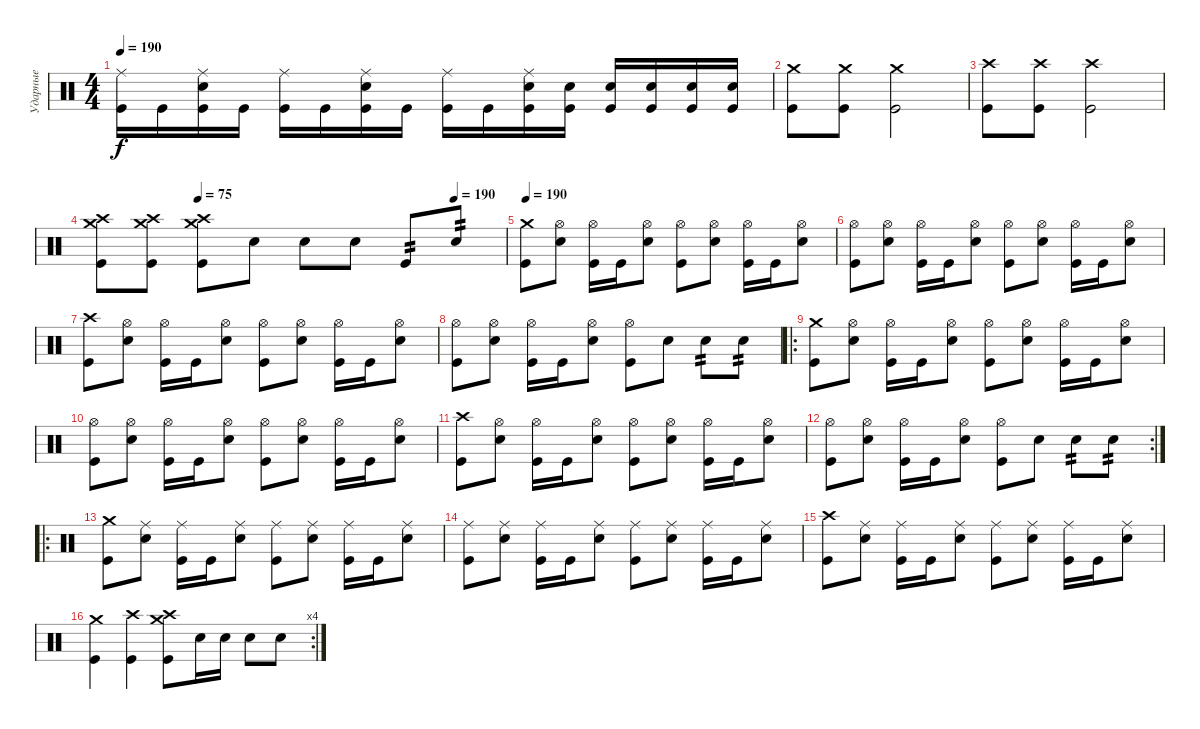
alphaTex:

\track ("Ударные" "Ударные") {instrument percussion}
\staff {score}
\articulation defaults
\ts (4 4)
\tempo 190
\clef neutral
\ks c
("Kick (hit)" "Ride (middle)").16{dy f} "Kick (hit)".16 ("Kick (hit)" "Electric Snare (hit)" "Ride (middle)").16 "Kick (hit)".16 ("Kick (hit)" "Ride (middle)").16 "Kick (hit)".16 ("Kick (hit)" "Electric Snare (hit)" "Ride (middle)").16 "Kick (hit)".16 ("Kick (hit)" "Ride (middle)").16 "Kick (hit)".16 ("Kick (hit)" "Electric Snare (hit)" "Ride (middle)").16 ("Kick (hit)" "Electric Snare (hit)").16 ("Kick (hit)" "Electric Snare (hit)").16 ("Kick (hit)" "Electric Snare (hit)").16 ("Kick (hit)" "Electric Snare (hit)").16 ("Kick (hit)" "Electric Snare (hit)").16 |
("Kick (hit)" "Crash medium (hit)").8 ("Kick (hit)" "Crash medium (hit)").8 ("Kick (hit)" "Crash medium (hit)").2 |
("Kick (hit)" "Crash high (hit)").8 ("Kick (hit)" "Crash high (hit)").8 ("Kick (hit)" "Crash high (hit)").2 |
\tempo (75 0.25)
\tempo (190 0.875)
("Kick (hit)" "Crash medium (hit)" "Crash high (hit)").8 ("Kick (hit)" "Crash medium (hit)" "Crash high (hit)").8 ("Kick (hit)" "Crash medium (hit)" "Crash high (hit)").8 "Snare (hit)".8 "Snare (hit)".8 "Snare (hit)".8 "Kick (hit)".8{tp 2} "Electric Snare (hit)".8{tp 2} |
\tempo 195
\tempo 190
("Kick (hit)" "Crash medium (hit)").8 ("Electric Snare (hit)" "Hi-Hat (open)").8 ("Kick (hit)" "Hi-Hat (open)").16 "Kick (hit)".16 ("Electric Snare (hit)" "Hi-Hat (open)").8 ("Kick (hit)" "Hi-Hat (open)").8 ("Electric Snare (hit)" "Hi-Hat (open)").8 ("Kick (hit)" "Hi-Hat (open)").16 "Kick (hit)".16 ("Electric Snare (hit)" "Hi-Hat (open)").8 |
("Kick (hit)" "Hi-Hat (open)").8 ("Electric Snare (hit)" "Hi-Hat (open)").8 ("Kick (hit)" "Hi-Hat (open)").16 "Kick (hit)".16 ("Electric Snare (hit)" "Hi-Hat (open)").8 ("Kick (hit)" "Hi-Hat (open)").8 ("Electric Snare (hit)" "Hi-Hat (open)").8 ("Kick (hit)" "Hi-Hat (open)").16 "Kick (hit)".16 ("Electric Snare (hit)" "Hi-Hat (open)").8 |
("Kick (hit)" "Crash high (hit)").8 ("Electric Snare (hit)" "Hi-Hat (open)").8 ("Kick (hit)" "Hi-Hat (open)").16 "Kick (hit)".16 ("Electric Snare (hit)" "Hi-Hat (open)").8 ("Kick (hit)" "Hi-Hat (open)").8 ("Electric Snare (hit)" "Hi-Hat (open)").8 ("Kick (hit)" "Hi-Hat (open)").16 "Kick (hit)".16 ("Electric Snare (hit)" "Hi-Hat (open)").8 |
("Kick (hit)" "Hi-Hat (open)").8 ("Electric Snare (hit)" "Hi-Hat (open)").8 ("Kick (hit)" "Hi-Hat (open)").16 "Kick (hit)".16 ("Electric Snare (hit)" "Hi-Hat (open)").8 ("Kick (hit)" "Hi-Hat (open)").8 "Electric Snare (hit)".8 "Electric Snare (hit)".8{tp 2} "Electric Snare (hit)".8{tp 2} |
\ro
("Kick (hit)" "Crash medium (hit)").8 ("Electric Snare (hit)" "Hi-Hat (open)").8 ("Kick (hit)" "Hi-Hat (open)").16 "Kick (hit)".16 ("Electric Snare (hit)" "Hi-Hat (open)").8 ("Kick (hit)" "Hi-Hat (open)").8 ("Electric Snare (hit)" "Hi-Hat (open)").8 ("Kick (hit)" "Hi-Hat (open)").16 "Kick (hit)".16 ("Electric Snare (hit)" "Hi-Hat (open)").8 |
("Kick (hit)" "Hi-Hat (open)").8 ("Electric Snare (hit)" "Hi-Hat (open)").8 ("Kick (hit)" "Hi-Hat (open)").16 "Kick (hit)".16 ("Electric Snare (hit)" "Hi-Hat (open)").8 ("Kick (hit)" "Hi-Hat (open)").8 ("Electric Snare (hit)" "Hi-Hat (open)").8 ("Kick (hit)" "Hi-Hat (open)").16 "Kick (hit)".16 ("Electric Snare (hit)" "Hi-Hat (open)").8 |
("Kick (hit)" "Crash high (hit)").8 ("Electric Snare (hit)" "Hi-Hat (open)").8 ("Kick (hit)" "Hi-Hat (open)").16 "Kick (hit)".16 ("Electric Snare (hit)" "Hi-Hat (open)").8 ("Kick (hit)" "Hi-Hat (open)").8 ("Electric Snare (hit)" "Hi-Hat (open)").8 ("Kick (hit)" "Hi-Hat (open)").16 "Kick (hit)".16 ("Electric Snare (hit)" "Hi-Hat (open)").8 |
\rc 2
("Kick (hit)" "Hi-Hat (open)").8 ("Electric Snare (hit)" "Hi-Hat (open)").8 ("Kick (hit)" "Hi-Hat (open)").16 "Kick (hit)".16 ("Electric Snare (hit)" "Hi-Hat (open)").8 ("Kick (hit)" "Hi-Hat (open)").8 "Electric Snare (hit)".8 "Electric Snare (hit)".8{tp 2} "Electric Snare (hit)".8{tp 2} |
\ro
("Kick (hit)" "Crash medium (hit)").8 ("Electric Snare (hit)" "Ride (middle)").8 ("Kick (hit)" "Ride (middle)").16 "Kick (hit)".16 ("Electric Snare (hit)" "Ride (middle)").8 ("Kick (hit)" "Ride (middle)").8 ("Electric Snare (hit)" "Ride (middle)").8 ("Kick (hit)" "Ride (middle)").16 "Kick (hit)".16 ("Electric Snare (hit)" "Ride (middle)").8 |
("Kick (hit)" "Ride (middle)").8 ("Electric Snare (hit)" "Ride (middle)").8 ("Kick (hit)" "Ride (middle)").16 "Kick (hit)".16 ("Electric Snare (hit)" "Ride (middle)").8 ("Kick (hit)" "Ride (middle)").8 ("Electric Snare (hit)" "Ride (middle)").8 ("Kick (hit)" "Ride (middle)").16 "Kick (hit)".16 ("Electric Snare (hit)" "Ride (middle)").8 |
("Kick (hit)" "Crash high (hit)").8 ("Electric Snare (hit)" "Ride (middle)").8 ("Kick (hit)" "Ride (middle)").16 "Kick (hit)".16 ("Electric Snare (hit)" "Ride (middle)").8 ("Kick (hit)" "Ride (middle)").8 ("Electric Snare (hit)" "Ride (middle)").8 ("Kick (hit)" "Ride (middle)").16 "Kick (hit)".16 ("Electric Snare (hit)" "Ride (middle)").8 |
\rc 4
("Kick (hit)" "Crash medium (hit)").4 ("Crash high (hit)" "Kick (hit)").4 ("Crash high (hit)" "Crash medium (hit)" "Kick (hit)").8 "Electric Snare (hit)".16 "Electric Snare (hit)".16 "Electric Snare (hit)".8 "Electric Snare (hit)".8
